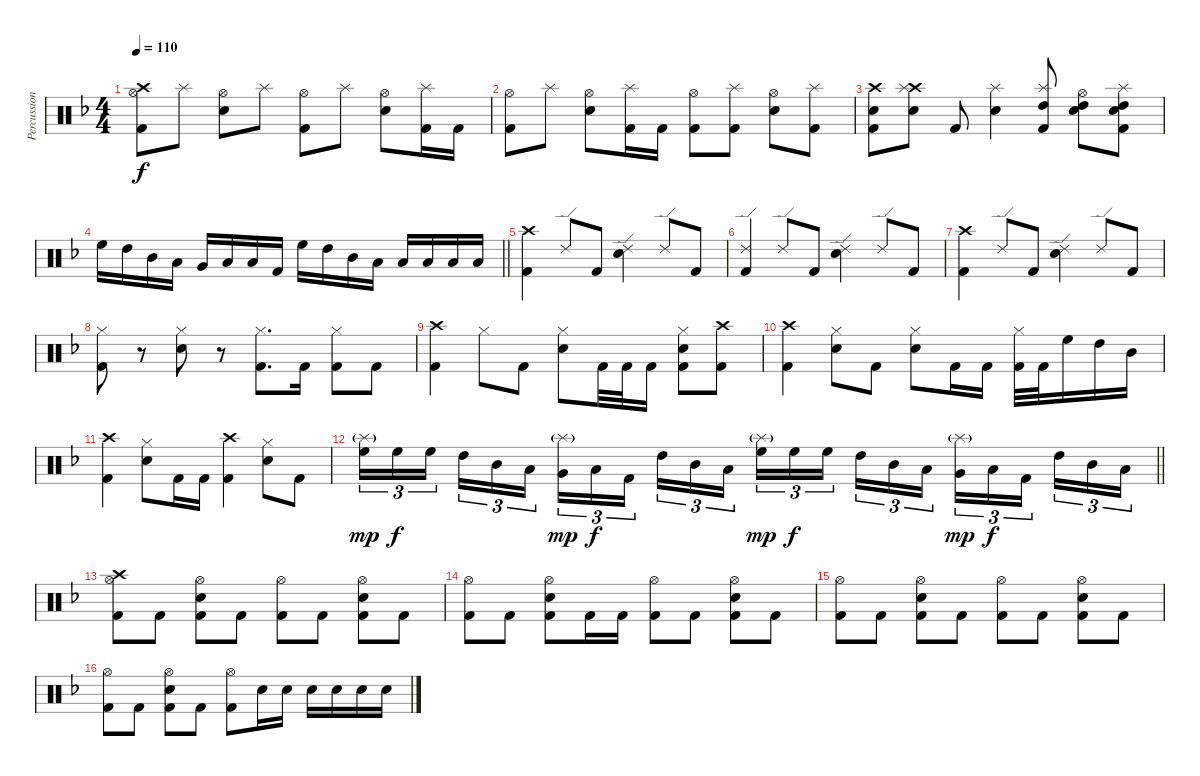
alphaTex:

\track ("Percussion" "Percussion") {instrument percussion}
\staff {score}
\articulation defaults
\ts (4 4)
\tempo 110
\clef neutral
\ks dminor
("Crash high (hit)" "Hi-Hat (open)" "Kick (hit) 2").8{dy f} "Splash (hit)".8 ("Hi-Hat (open)" "Electric Snare (hit)").8 "Splash (hit)".8 ("Hi-Hat (open)" "Kick (hit) 2").8 "Splash (hit)".8 ("Hi-Hat (open)" "Electric Snare (hit)").8 ("Splash (hit)" "Kick (hit) 2").16 "Kick (hit) 2".16 |
("Hi-Hat (open)" "Kick (hit) 2").8 "Splash (hit)".8 ("Hi-Hat (open)" "Electric Snare (hit)").8 ("Splash (hit)" "Kick (hit) 2").16 "Kick (hit) 2".16 ("Hi-Hat (open)" "Kick (hit) 2").8 ("Splash (hit)" "Kick (hit) 2").8 ("Hi-Hat (open)" "Electric Snare (hit)").8 ("Splash (hit)" "Kick (hit) 2").8 |
("Crash high (hit)" "Electric Snare (hit)" "Kick (hit) 2").8 ("Crash high (hit)" "Splash (hit)" "Electric Snare (hit)").8 "Kick (hit) 2".8 ("Splash (hit)" "Electric Snare (hit)").4 ("Splash (hit)" "High Tom (hit)" "Kick (hit) 2").8 ("Hi-Hat (open)" "Electric Snare (hit)" "High Tom (hit)").8 ("Splash (hit)" "Electric Snare (hit)" "High Tom (hit)" "Kick (hit) 2").8 |
\barLineRight lightlight "High Floor Tom (hit)".16 "High Tom (hit)".16 "Mid Tom (hit)".16 "Low Tom (hit)".16 "Very Low Tom (hit)".16 "Low Floor Tom (hit)".16 "Low Floor Tom (hit)".16 "Kick (hit) 2".16 "High Floor Tom (hit)".16 "High Tom (hit)".16 "Mid Tom (hit)".16 "Low Tom (hit)".16 "Low Floor Tom (hit)".16 "Low Floor Tom (hit)".16 "Low Floor Tom (hit)".16 "Low Floor Tom (hit)".16
|
("Crash high (hit)" "Kick (hit) 2").4 "Ride (edge) 2".8 "Kick (hit) 2".8 ("Ride (edge) 2" "Electric Snare (hit)").4 "Ride (edge) 2".8 "Kick (hit) 2".8 |
("Ride (edge) 2" "Kick (hit) 2").4 "Ride (edge) 2".8 "Kick (hit) 2".8 ("Ride (edge) 2" "Electric Snare (hit)").4 "Ride (edge) 2".8 "Kick (hit) 2".8 |
("Crash high (hit)" "Kick (hit) 2").4 "Ride (edge) 2".8 "Kick (hit) 2".8 ("Ride (edge) 2" "Electric Snare (hit)").4 "Ride (edge) 2".8 "Kick (hit) 2".8 |
("Hi-Hat (closed)" "Kick (hit) 2").8 r.8 ("Hi-Hat (closed)" "Electric Snare (hit)").8 r.8 ("Hi-Hat (closed)" "Kick (hit) 2").8{d} "Kick (hit) 2".16 ("Hi-Hat (closed)" "Kick (hit) 2").8 "Kick (hit) 2".8 |
("Crash high (hit)" "Kick (hit) 2").4 "Hi-Hat (closed)".8 "Kick (hit) 2".8 ("Hi-Hat (closed)" "Electric Snare (hit)").8 "Kick (hit) 2".32 "Kick (hit) 2".32 "Kick (hit) 2".16 ("Hi-Hat (closed)" "Electric Snare (hit)" "Kick (hit) 2").8 ("Crash high (hit)" "Kick (hit) 2").8 |
("Crash high (hit)" "Kick (hit) 2").4 ("Hi-Hat (closed)" "Electric Snare (hit)").8 "Kick (hit) 2".8 ("Hi-Hat (closed)" "Electric Snare (hit)").8 "Kick (hit) 2".16 "Kick (hit) 2".16 ("Hi-Hat (closed)" "Kick (hit) 2").32 "Kick (hit) 2".32 "High Floor Tom (hit)".16 "High Tom (hit)".16 "Mid Tom (hit)".16 |
("Crash high (hit)" "Kick (hit) 2").4 ("Hi-Hat (closed)" "Electric Snare (hit)").8 "Kick (hit) 2".16 "Kick (hit) 2".16 ("Crash high (hit)" "Kick (hit) 2").4 ("Hi-Hat (closed)" "Electric Snare (hit)").8 "Kick (hit) 2".8 |
\barLineRight lightlight
("Splash (hit)"{g} "High Floor Tom (hit)").16{tu (3 2) dy mp} "High Floor Tom (hit)".16{tu (3 2) dy f} "High Floor Tom (hit)".16{tu (3 2)} "High Tom (hit)".16{tu (3 2)} "Mid Tom (hit)".16{tu (3 2)} "Low Tom (hit)".16{tu (3 2)} ("Splash (hit)"{g} "Very Low Tom (hit)").16{tu (3 2) dy mp} "Low Floor Tom (hit)".16{tu (3 2) dy f} "Kick (hit) 2".16{tu (3 2)} "High Tom (hit)".16{tu (3 2)} "Mid Tom (hit)".16{tu (3 2)} "Low Tom (hit)".16{tu (3 2)} ("Splash (hit)"{g} "High Floor Tom (hit)").16{tu (3 2) dy mp} "High Floor Tom (hit)".16{tu (3 2) dy f} "High Floor Tom (hit)".16{tu (3 2)} "High Tom (hit)".16{tu (3 2)} "Mid Tom (hit)".16{tu (3 2)} "Low Tom (hit)".16{tu (3 2)} ("Splash (hit)"{g} "Very Low Tom (hit)").16{tu (3 2) dy mp} "Low Floor Tom (hit)".16{tu (3 2) dy f} "Kick (hit) 2".16{tu (3 2)} "High Tom (hit)".16{tu (3 2)} "Mid Tom (hit)".16{tu (3 2)} "Low Tom (hit)".16{tu (3 2)} |
("Crash high (hit)" "Hi-Hat (open)" "Kick (hit) 2").8 "Kick (hit) 2".8 ("Hi-Hat (open)" "Electric Snare (hit)" "Kick (hit) 2").8 "Kick (hit) 2".8 ("Hi-Hat (open)" "Kick (hit) 2").8 "Kick (hit) 2".8 ("Hi-Hat (open)" "Electric Snare (hit)" "Kick (hit) 2").8 "Kick (hit) 2".8 |
("Hi-Hat (open)" "Kick (hit) 2").8 "Kick (hit) 2".8 ("Hi-Hat (open)" "Electric Snare (hit)" "Kick (hit) 2").8 "Kick (hit) 2".16 "Kick (hit) 2".16 ("Hi-Hat (open)" "Kick (hit) 2").8 "Kick (hit) 2".8 ("Hi-Hat (open)" "Electric Snare (hit)" "Kick (hit) 2").8 "Kick (hit) 2".8 |
("Hi-Hat (open)" "Kick (hit) 2").8 "Kick (hit) 2".8 ("Hi-Hat (open)" "Electric Snare (hit)" "Kick (hit) 2").8 "Kick (hit) 2".8 ("Hi-Hat (open)" "Kick (hit) 2").8 "Kick (hit) 2".8 ("Hi-Hat (open)" "Electric Snare (hit)" "Kick (hit) 2").8 "Kick (hit) 2".8 |
("Hi-Hat (open)" "Kick (hit) 2").8 "Kick (hit) 2".8 ("Hi-Hat (open)" "Electric Snare (hit)" "Kick (hit) 2").8 "Kick (hit) 2".8 ("Hi-Hat (open)" "Kick (hit) 2").8 "Electric Snare (hit)".16 "Electric Snare (hit)".16 "Electric Snare (hit)".16 "Electric Snare (hit)".16 "Electric Snare (hit)".16 "Electric Snare (hit)".16
